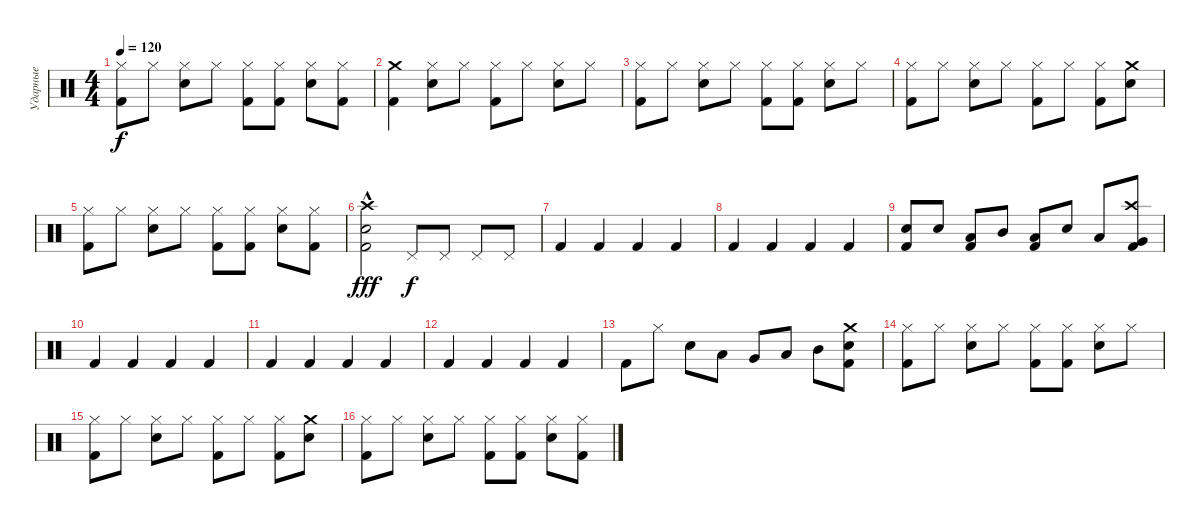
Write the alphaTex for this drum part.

\track ("Ударные" "Ударные") {instrument percussion}
\staff {score}
\articulation defaults
\ts (4 4)
\tempo 120
\clef neutral
\ks c
("Hi-Hat (closed)" "Kick (hit) 2").8{dy f} "Hi-Hat (closed)".8 ("Snare (hit) 2" "Hi-Hat (closed)").8 "Hi-Hat (closed)".8 ("Kick (hit) 2" "Hi-Hat (closed)").8 ("Kick (hit) 2" "Hi-Hat (closed)").8 ("Snare (hit) 2" "Hi-Hat (closed)").8 ("Kick (hit) 2" "Hi-Hat (closed)").8 |
("Kick (hit) 2" "Crash medium (hit)").4 ("Snare (hit) 2" "Hi-Hat (closed)").8 "Hi-Hat (closed)".8 ("Hi-Hat (closed)" "Kick (hit) 2").8 "Hi-Hat (closed)".8 ("Snare (hit) 2" "Hi-Hat (closed)").8 "Hi-Hat (closed)".8 |
("Hi-Hat (closed)" "Kick (hit) 2").8 "Hi-Hat (closed)".8 ("Snare (hit) 2" "Hi-Hat (closed)").8 "Hi-Hat (closed)".8 ("Kick (hit) 2" "Hi-Hat (closed)").8 ("Kick (hit) 2" "Hi-Hat (closed)").8 ("Snare (hit) 2" "Hi-Hat (closed)").8 "Hi-Hat (closed)".8 |
("Hi-Hat (closed)" "Kick (hit) 2").8 "Hi-Hat (closed)".8 ("Snare (hit) 2" "Hi-Hat (closed)").8 "Hi-Hat (closed)".8 ("Hi-Hat (closed)" "Kick (hit) 2").8 "Hi-Hat (closed)".8 ("Hi-Hat (closed)" "Kick (hit) 2").8 ("Crash medium (hit)" "Snare (hit) 2").8 |
("Hi-Hat (closed)" "Kick (hit) 2").8 "Hi-Hat (closed)".8 ("Snare (hit) 2" "Hi-Hat (closed)").8 "Hi-Hat (closed)".8 ("Kick (hit) 2" "Hi-Hat (closed)").8 ("Kick (hit) 2" "Hi-Hat (closed)").8 ("Snare (hit) 2" "Hi-Hat (closed)").8 ("Kick (hit) 2" "Hi-Hat (closed)").8 |
("Snare (hit) 2" "Crash high (hit)"{hac} "Kick (hit) 2").2{dy fff} "Pedal Hi-Hat (hit)".8{dy f} "Pedal Hi-Hat (hit)".8 "Pedal Hi-Hat (hit)".8 "Pedal Hi-Hat (hit)".8 |
"Kick (hit) 2".4 "Kick (hit) 2".4 "Kick (hit) 2".4 "Kick (hit) 2".4 |
"Kick (hit) 2".4 "Kick (hit) 2".4 "Kick (hit) 2".4 "Kick (hit) 2".4 |
("Kick (hit) 2" "Snare (hit) 2").8 "Snare (hit) 2".8 ("Kick (hit) 2" "Low Floor Tom (hit)").8 "Mid Tom (hit)".8 ("Kick (hit) 2" "Low Floor Tom (hit)").8 "Snare (hit) 2".8 "Low Floor Tom (hit)".8 ("Very Low Tom (hit)" "Kick (hit) 2" "Crash high (hit)").8 |
"Kick (hit) 2".4 "Kick (hit) 2".4 "Kick (hit) 2".4 "Kick (hit) 2".4 |
"Kick (hit) 2".4 "Kick (hit) 2".4 "Kick (hit) 2".4 "Kick (hit) 2".4 |
"Kick (hit) 2".4 "Kick (hit) 2".4 "Kick (hit) 2".4 "Kick (hit) 2".4 |
"Kick (hit) 2".8 "Hi-Hat (closed)".8 "Snare (hit) 2".8 "Low Floor Tom (hit)".8 "Very Low Tom (hit)".8 "Low Tom (hit)".8 "Mid Tom (hit)".8 ("Snare (hit) 2" "Crash medium (hit)" "Kick (hit) 2").8 |
("Hi-Hat (closed)" "Kick (hit) 2").8 "Hi-Hat (closed)".8 ("Snare (hit) 2" "Hi-Hat (closed)").8 "Hi-Hat (closed)".8 ("Kick (hit) 2" "Hi-Hat (closed)").8 ("Kick (hit) 2" "Hi-Hat (closed)").8 ("Snare (hit) 2" "Hi-Hat (closed)").8 "Hi-Hat (closed)".8 |
("Hi-Hat (closed)" "Kick (hit) 2").8 "Hi-Hat (closed)".8 ("Snare (hit) 2" "Hi-Hat (closed)").8 "Hi-Hat (closed)".8 ("Hi-Hat (closed)" "Kick (hit) 2").8 "Hi-Hat (closed)".8 ("Hi-Hat (closed)" "Kick (hit) 2").8 ("Crash medium (hit)" "Snare (hit) 2").8 |
("Hi-Hat (closed)" "Kick (hit) 2").8 "Hi-Hat (closed)".8 ("Snare (hit) 2" "Hi-Hat (closed)").8 "Hi-Hat (closed)".8 ("Kick (hit) 2" "Hi-Hat (closed)").8 ("Kick (hit) 2" "Hi-Hat (closed)").8 ("Snare (hit) 2" "Hi-Hat (closed)").8 ("Kick (hit) 2" "Hi-Hat (closed)").8
